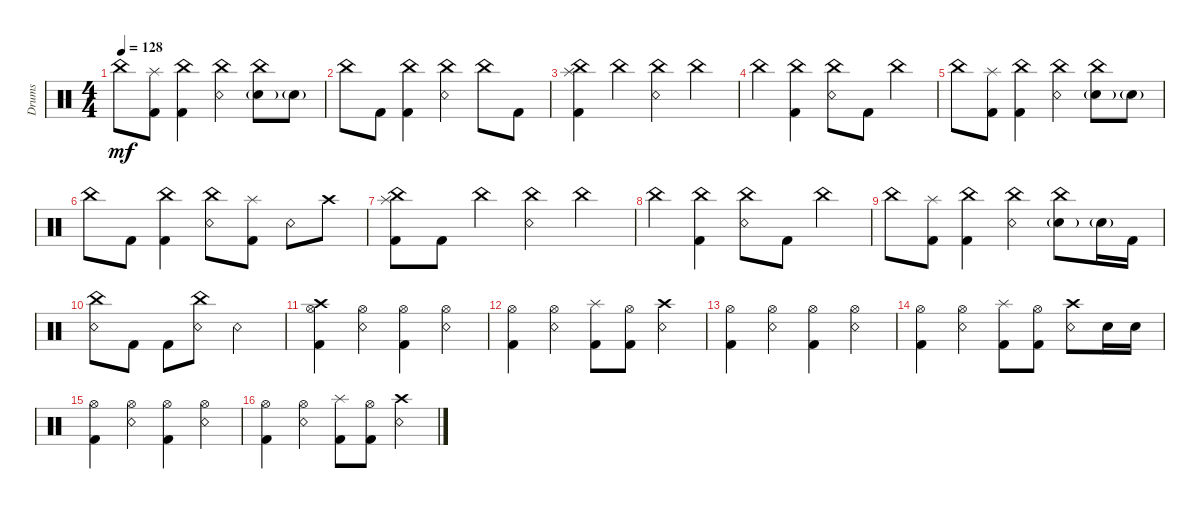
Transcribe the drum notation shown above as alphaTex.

\track ("Drums" "Drums") {instrument percussion}
\staff {score}
\articulation defaults
\ts (4 4)
\tempo 128
\clef neutral
\ks c "China (hit)".8{dy mf}
("Splash (hit)" "Kick (hit) 2").8 ("China (hit)" "Kick (hit) 2").4 ("China (hit)" "Snare (rim shot)").4 ("China (hit)" "Snare (hit) 2"{g}).8 "Snare (hit) 2"{g}.8 |
"China (hit)".8 "Kick (hit) 2".8 ("China (hit)" "Kick (hit) 2").4 ("China (hit)" "Snare (rim shot)").4 "China (hit)".8 "Kick (hit) 2".8 |
("China (hit)" "Splash (hit)" "Kick (hit) 2").4 "China (hit)".4 ("China (hit)" "Snare (rim shot)").4 "China (hit)".4 |
"China (hit)".4 ("China (hit)" "Kick (hit) 2").4 ("China (hit)" "Snare (rim shot)").8 "Kick (hit) 2".8 "China (hit)".4 |
"China (hit)".8 ("Splash (hit)" "Kick (hit) 2").8 ("China (hit)" "Kick (hit) 2").4 ("China (hit)" "Snare (rim shot)").4 ("China (hit)" "Snare (hit) 2"{g}).8 "Snare (hit) 2"{g}.8 |
"China (hit)".8 "Kick (hit) 2".8 ("China (hit)" "Kick (hit) 2").4 ("China (hit)" "Snare (rim shot)").8 ("Splash (hit)" "Kick (hit) 2").8 "Snare (rim shot)".8 "Crash high (hit)".8 |
("China (hit)" "Splash (hit)" "Kick (hit) 2").8 "Kick (hit) 2".8 "China (hit)".4 ("China (hit)" "Snare (rim shot)").4 "China (hit)".4 |
"China (hit)".4 ("China (hit)" "Kick (hit) 2").4 ("China (hit)" "Snare (rim shot)").8 "Kick (hit) 2".8 "China (hit)".4 |
"China (hit)".8 ("Splash (hit)" "Kick (hit) 2").8 ("China (hit)" "Kick (hit) 2").4 ("China (hit)" "Snare (rim shot)").4 ("China (hit)" "Snare (hit) 2"{g}).8 "Snare (hit) 2"{g}.16 "Kick (hit) 2".16 |
("China (hit)" "Snare (rim shot)").8 "Kick (hit) 2".8 "Kick (hit) 2".8 ("China (hit)" "Snare (rim shot)").8 "Snare (rim shot)".2 |
("Crash high (hit)" "Hi-Hat (open)" "Kick (hit) 2").4 ("Hi-Hat (open)" "Snare (rim shot)").4 ("Hi-Hat (open)" "Kick (hit) 2").4 ("Hi-Hat (open)" "Snare (rim shot)").4 |
("Hi-Hat (open)" "Kick (hit) 2").4 ("Hi-Hat (open)" "Snare (rim shot)").4 ("Splash (hit)" "Kick (hit) 2").8 ("Hi-Hat (open)" "Kick (hit) 2").8 ("Crash high (hit)" "Snare (rim shot)").4 |
("Hi-Hat (open)" "Kick (hit) 2").4 ("Hi-Hat (open)" "Snare (rim shot)").4 ("Hi-Hat (open)" "Kick (hit) 2").4 ("Hi-Hat (open)" "Snare (rim shot)").4 |
("Hi-Hat (open)" "Kick (hit) 2").4 ("Hi-Hat (open)" "Snare (rim shot)").4 ("Splash (hit)" "Kick (hit) 2").8 ("Hi-Hat (open)" "Kick (hit) 2").8 ("Crash high (hit)" "Snare (rim shot)").8 "Snare (hit) 2".16 "Snare (hit) 2".16 |
("Hi-Hat (open)" "Kick (hit) 2").4 ("Hi-Hat (open)" "Snare (rim shot)").4 ("Hi-Hat (open)" "Kick (hit) 2").4 ("Hi-Hat (open)" "Snare (rim shot)").4 |
("Hi-Hat (open)" "Kick (hit) 2").4 ("Hi-Hat (open)" "Snare (rim shot)").4 ("Splash (hit)" "Kick (hit) 2").8 ("Hi-Hat (open)" "Kick (hit) 2").8 ("Crash high (hit)" "Snare (rim shot)").4
